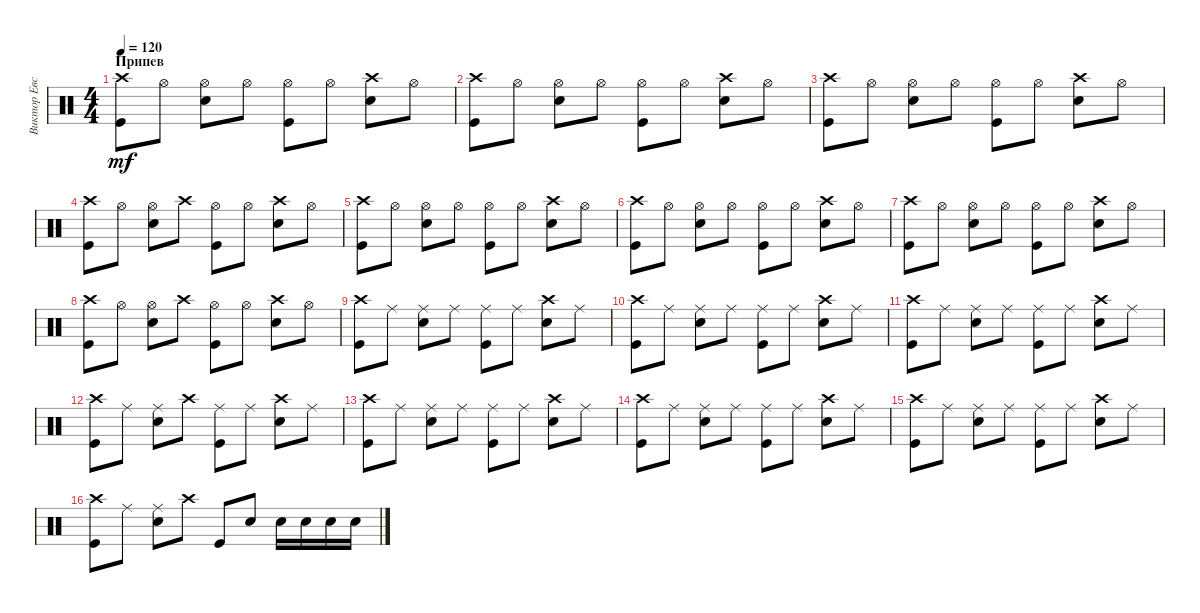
\track ("Виктор Евстратов" "Виктор Евс") {instrument percussion}
\staff {score}
\articulation defaults
\ts (4 4)
\section ("" "Припев")
\tempo 120
\clef neutral
\ks c
("Kick (hit)" "Crash high (hit)").8{dy mf} "Hi-Hat (open)".8 ("Snare (hit) 2" "Hi-Hat (open)").8 "Hi-Hat (open)".8 ("Kick (hit)" "Hi-Hat (open)").8 "Hi-Hat (open)".8 ("Snare (hit) 2" "Crash high (hit)").8 "Hi-Hat (open)".8 |
("Kick (hit)" "Crash high (hit)").8 "Hi-Hat (open)".8 ("Snare (hit) 2" "Hi-Hat (open)").8 "Hi-Hat (open)".8 ("Kick (hit)" "Hi-Hat (open)").8 "Hi-Hat (open)".8 ("Snare (hit) 2" "Crash high (hit)").8 "Hi-Hat (open)".8 |
("Kick (hit)" "Crash high (hit)").8 "Hi-Hat (open)".8 ("Snare (hit) 2" "Hi-Hat (open)").8 "Hi-Hat (open)".8 ("Kick (hit)" "Hi-Hat (open)").8 "Hi-Hat (open)".8 ("Snare (hit) 2" "Crash high (hit)").8 "Hi-Hat (open)".8 |
("Kick (hit)" "Crash high (hit)").8 "Hi-Hat (open)".8 ("Snare (hit) 2" "Hi-Hat (open)").8 "Crash high (hit)".8 ("Kick (hit)" "Hi-Hat (open)").8 "Hi-Hat (open)".8 ("Snare (hit) 2" "Crash high (hit)").8 "Hi-Hat (open)".8 |
("Kick (hit)" "Crash high (hit)").8 "Hi-Hat (open)".8 ("Snare (hit) 2" "Hi-Hat (open)").8 "Hi-Hat (open)".8 ("Kick (hit)" "Hi-Hat (open)").8 "Hi-Hat (open)".8 ("Snare (hit) 2" "Crash high (hit)").8 "Hi-Hat (open)".8 |
("Kick (hit)" "Crash high (hit)").8 "Hi-Hat (open)".8 ("Snare (hit) 2" "Hi-Hat (open)").8 "Hi-Hat (open)".8 ("Kick (hit)" "Hi-Hat (open)").8 "Hi-Hat (open)".8 ("Snare (hit) 2" "Crash high (hit)").8 "Hi-Hat (open)".8 |
("Kick (hit)" "Crash high (hit)").8 "Hi-Hat (open)".8 ("Snare (hit) 2" "Hi-Hat (open)").8 "Hi-Hat (open)".8 ("Kick (hit)" "Hi-Hat (open)").8 "Hi-Hat (open)".8 ("Snare (hit) 2" "Crash high (hit)").8 "Hi-Hat (open)".8 |
("Kick (hit)" "Crash high (hit)").8 "Hi-Hat (open)".8 ("Snare (hit) 2" "Hi-Hat (open)").8 "Crash high (hit)".8 ("Kick (hit)" "Hi-Hat (open)").8 "Hi-Hat (open)".8 ("Snare (hit) 2" "Crash high (hit)").8 "Hi-Hat (open)".8 |
("Kick (hit)" "Crash high (hit)").8 "Ride (middle)".8 ("Snare (hit) 2" "Ride (middle)").8 "Ride (middle)".8 ("Kick (hit)" "Ride (middle)").8 "Ride (middle)".8 ("Snare (hit) 2" "Crash high (hit)").8 "Ride (middle)".8 |
("Kick (hit)" "Crash high (hit)").8 "Ride (middle)".8 ("Snare (hit) 2" "Ride (middle)").8 "Ride (middle)".8 ("Kick (hit)" "Ride (middle)").8 "Ride (middle)".8 ("Snare (hit) 2" "Crash high (hit)").8 "Ride (middle)".8 |
("Kick (hit)" "Crash high (hit)").8 "Ride (middle)".8 ("Snare (hit) 2" "Ride (middle)").8 "Ride (middle)".8 ("Kick (hit)" "Ride (middle)").8 "Ride (middle)".8 ("Snare (hit) 2" "Crash high (hit)").8 "Ride (middle)".8 |
("Kick (hit)" "Crash high (hit)").8 "Ride (middle)".8 ("Snare (hit) 2" "Ride (middle)").8 "Crash high (hit)".8 ("Kick (hit)" "Ride (middle)").8 "Ride (middle)".8 ("Snare (hit) 2" "Crash high (hit)").8 "Ride (middle)".8 |
("Kick (hit)" "Crash high (hit)").8 "Ride (middle)".8 ("Snare (hit) 2" "Ride (middle)").8 "Ride (middle)".8 ("Kick (hit)" "Ride (middle)").8 "Ride (middle)".8 ("Snare (hit) 2" "Crash high (hit)").8 "Ride (middle)".8 |
("Kick (hit)" "Crash high (hit)").8 "Ride (middle)".8 ("Snare (hit) 2" "Ride (middle)").8 "Ride (middle)".8 ("Kick (hit)" "Ride (middle)").8 "Ride (middle)".8 ("Snare (hit) 2" "Crash high (hit)").8 "Ride (middle)".8 |
("Kick (hit)" "Crash high (hit)").8 "Ride (middle)".8 ("Snare (hit) 2" "Ride (middle)").8 "Ride (middle)".8 ("Kick (hit)" "Ride (middle)").8 "Ride (middle)".8 ("Snare (hit) 2" "Crash high (hit)").8 "Ride (middle)".8 |
("Kick (hit)" "Crash high (hit)").8 "Ride (middle)".8 ("Snare (hit) 2" "Ride (middle)").8 "Crash high (hit)".8 "Kick (hit)".8 "Snare (hit) 2".8 "Snare (hit) 2".16 "Snare (hit) 2".16 "Snare (hit) 2".16 "Snare (hit) 2".16
